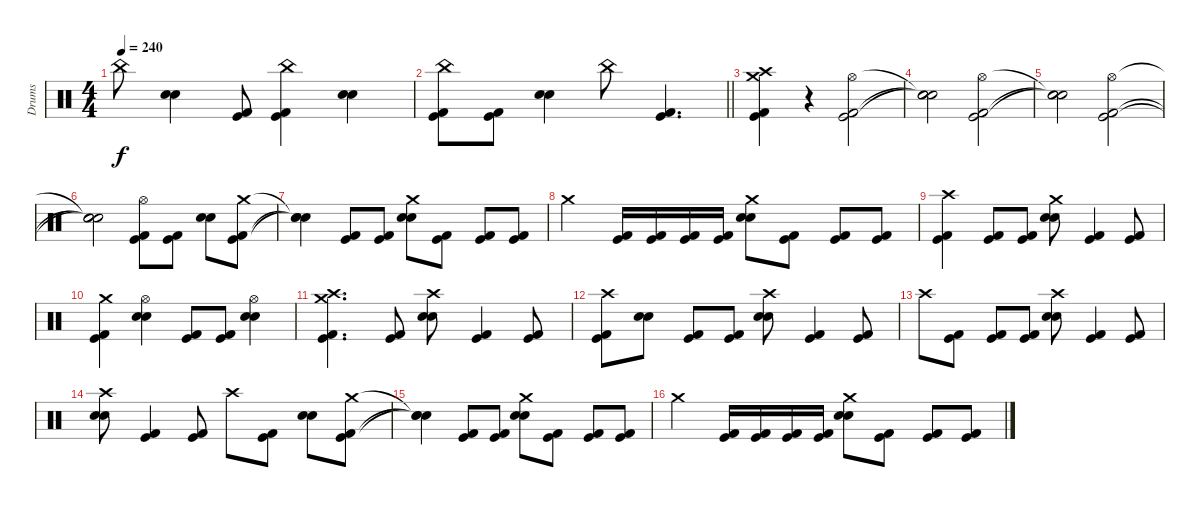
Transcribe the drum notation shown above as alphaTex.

\track ("Drums" "Drums") {instrument percussion bank 10}
\staff {score}
\articulation defaults
\ts (4 4)
\tempo 240
\clef neutral
\ks c "China (hit)".8{dy f}
("Electric Snare (hit)" "Electric Snare (hit)").4 ("Kick (hit) 2" "Kick (hit)").8 ("China (hit)" "Kick (hit) 2" "Kick (hit)").4 ("Electric Snare (hit)" "Electric Snare (hit)").4 |
\barLineRight lightlight
("China (hit)" "Kick (hit) 2" "Kick (hit)").8 ("Kick (hit) 2" "Kick (hit)").8 ("Electric Snare (hit)" "Electric Snare (hit)").4 "China (hit)".8 ("Kick (hit) 2" "Kick (hit)").4{d} |
("Crash high (hit)" "Crash medium (hit)" "Kick (hit) 2" "Kick (hit)").4 r.4 ("Hi-Hat (open)" "Kick (hit) 2" "Kick (hit)").2 |
("Snare (hit)"{t} "Snare (hit)"{t} "Snare (hit)"{t}).2 ("Hi-Hat (open)" "Kick (hit) 2" "Kick (hit)").2 |
("Snare (hit)"{t} "Snare (hit)"{t} "Snare (hit)"{t}).2 ("Hi-Hat (open)" "Kick (hit) 2" "Kick (hit)").2 |
("Snare (hit)"{t} "Snare (hit)"{t} "Snare (hit)"{t}).2 ("Hi-Hat (open)" "Kick (hit) 2" "Kick (hit)").8 ("Kick (hit) 2" "Kick (hit)").8 ("Electric Snare (hit)" "Electric Snare (hit)").8 ("Crash medium (hit)" "Kick (hit) 2" "Kick (hit)").8 |
("Snare (hit)"{t} "Snare (hit)"{t} "Snare (hit)"{t}).4 ("Kick (hit) 2" "Kick (hit)").8 ("Kick (hit) 2" "Kick (hit)").8 ("Crash medium (hit)" "Electric Snare (hit)" "Electric Snare (hit)").8 ("Kick (hit) 2" "Kick (hit)").8 ("Kick (hit) 2" "Kick (hit)").8 ("Kick (hit) 2" "Kick (hit)").8 |
"Crash medium (hit)".4 ("Kick (hit) 2" "Kick (hit)").16 ("Kick (hit) 2" "Kick (hit)").16 ("Kick (hit) 2" "Kick (hit)").16 ("Kick (hit) 2" "Kick (hit)").16 ("Crash medium (hit)" "Electric Snare (hit)" "Electric Snare (hit)").8 ("Kick (hit) 2" "Kick (hit)").8 ("Kick (hit) 2" "Kick (hit)").8 ("Kick (hit) 2" "Kick (hit)").8 |
("Crash high (hit)" "Kick (hit) 2" "Kick (hit)").4 ("Kick (hit) 2" "Kick (hit)").8 ("Kick (hit) 2" "Kick (hit)").8 ("Crash medium (hit)" "Electric Snare (hit)" "Electric Snare (hit)").8 ("Kick (hit) 2" "Kick (hit)").4 ("Kick (hit) 2" "Kick (hit)").8 |
("Crash medium (hit)" "Kick (hit) 2" "Kick (hit)").4 ("Hi-Hat (open)" "Electric Snare (hit)" "Electric Snare (hit)").4 ("Kick (hit) 2" "Kick (hit)").8 ("Kick (hit) 2" "Kick (hit)").8 ("Hi-Hat (open)" "Electric Snare (hit)" "Electric Snare (hit)").4 |
("Crash high (hit)" "Crash medium (hit)" "Kick (hit) 2" "Kick (hit)").4{d} ("Kick (hit) 2" "Kick (hit)").8 ("Crash high (hit)" "Electric Snare (hit)" "Electric Snare (hit)").8 ("Kick (hit) 2" "Kick (hit)").4 ("Kick (hit) 2" "Kick (hit)").8 |
("Crash high (hit)" "Kick (hit) 2" "Kick (hit)").8 ("Electric Snare (hit)" "Electric Snare (hit)").8 ("Kick (hit) 2" "Kick (hit)").8 ("Kick (hit) 2" "Kick (hit)").8 ("Crash high (hit)" "Electric Snare (hit)" "Electric Snare (hit)").8 ("Kick (hit) 2" "Kick (hit)").4 ("Kick (hit) 2" "Kick (hit)").8 |
"Crash high (hit)".8 ("Kick (hit) 2" "Kick (hit)").8 ("Kick (hit) 2" "Kick (hit)").8 ("Kick (hit) 2" "Kick (hit)").8 ("Crash high (hit)" "Electric Snare (hit)" "Electric Snare (hit)").8 ("Kick (hit) 2" "Kick (hit)").4 ("Kick (hit) 2" "Kick (hit)").8 |
("Crash high (hit)" "Electric Snare (hit)" "Electric Snare (hit)").8 ("Kick (hit) 2" "Kick (hit)").4 ("Kick (hit) 2" "Kick (hit)").8 "Crash high (hit)".8 ("Kick (hit) 2" "Kick (hit)").8 ("Electric Snare (hit)" "Electric Snare (hit)").8 ("Crash medium (hit)" "Kick (hit) 2" "Kick (hit)").8 |
("Snare (hit)"{t} "Snare (hit)"{t} "Snare (hit)"{t}).4 ("Kick (hit) 2" "Kick (hit)").8 ("Kick (hit) 2" "Kick (hit)").8 ("Crash medium (hit)" "Electric Snare (hit)" "Electric Snare (hit)").8 ("Kick (hit) 2" "Kick (hit)").8 ("Kick (hit) 2" "Kick (hit)").8 ("Kick (hit) 2" "Kick (hit)").8 |
"Crash medium (hit)".4 ("Kick (hit) 2" "Kick (hit)").16 ("Kick (hit) 2" "Kick (hit)").16 ("Kick (hit) 2" "Kick (hit)").16 ("Kick (hit) 2" "Kick (hit)").16 ("Crash medium (hit)" "Electric Snare (hit)" "Electric Snare (hit)").8 ("Kick (hit) 2" "Kick (hit)").8 ("Kick (hit) 2" "Kick (hit)").8 ("Kick (hit) 2" "Kick (hit)").8
